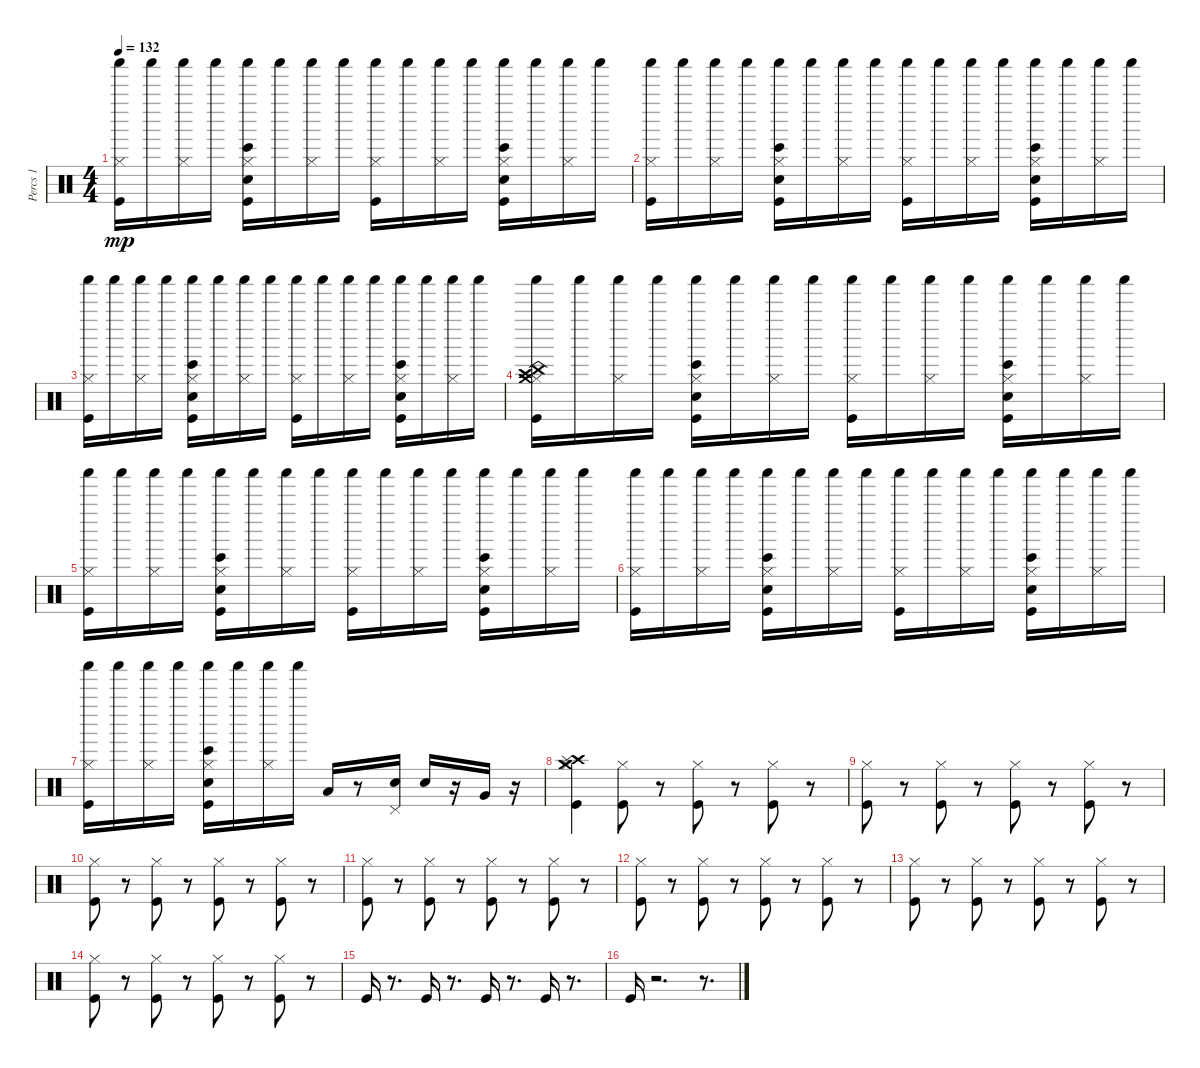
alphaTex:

\track ("Percs 1" "Percs 1") {instrument percussion}
\staff {score}
\articulation defaults
\ts (4 4)
\tempo 132
\clef neutral
\ks c
("Shaker (hit)" "Kick (hit)" "Hi-Hat (closed)").16{dy mp} "Shaker (hit)".16 ("Shaker (hit)" "Hi-Hat (closed)").16 "Shaker (hit)".16 ("Shaker (hit)" "Hi-Hat (closed)" "Electric Snare (hit)" "Kick (hit)" "Bongo High (hit)").16 "Shaker (hit)".16 ("Hi-Hat (closed)" "Shaker (hit)").16 "Shaker (hit)".16 ("Hi-Hat (closed)" "Shaker (hit)" "Kick (hit)").16 "Shaker (hit)".16 ("Hi-Hat (closed)" "Shaker (hit)").16 "Shaker (hit)".16 ("Shaker (hit)" "Bongo High (hit)" "Kick (hit)" "Electric Snare (hit)" "Hi-Hat (closed)").16 "Shaker (hit)".16 ("Shaker (hit)" "Hi-Hat (closed)").16 "Shaker (hit)".16 |
("Hi-Hat (closed)" "Kick (hit)" "Shaker (hit)").16 "Shaker (hit)".16 ("Hi-Hat (closed)" "Shaker (hit)").16 "Shaker (hit)".16 ("Hi-Hat (closed)" "Kick (hit)" "Electric Snare (hit)" "Bongo High (hit)" "Shaker (hit)").16 "Shaker (hit)".16 ("Shaker (hit)" "Hi-Hat (closed)").16 "Shaker (hit)".16 ("Hi-Hat (closed)" "Kick (hit)" "Shaker (hit)").16 "Shaker (hit)".16 ("Hi-Hat (closed)" "Shaker (hit)").16 "Shaker (hit)".16 ("Hi-Hat (closed)" "Electric Snare (hit)" "Shaker (hit)" "Bongo High (hit)" "Kick (hit)").16 "Shaker (hit)".16 ("Hi-Hat (closed)" "Shaker (hit)").16 "Shaker (hit)".16 |
("Shaker (hit)" "Kick (hit)" "Hi-Hat (closed)").16 "Shaker (hit)".16 ("Shaker (hit)" "Hi-Hat (closed)").16 "Shaker (hit)".16 ("Shaker (hit)" "Hi-Hat (closed)" "Electric Snare (hit)" "Kick (hit)" "Bongo High (hit)").16 "Shaker (hit)".16 ("Hi-Hat (closed)" "Shaker (hit)").16 "Shaker (hit)".16 ("Hi-Hat (closed)" "Shaker (hit)" "Kick (hit)").16 "Shaker (hit)".16 ("Hi-Hat (closed)" "Shaker (hit)").16 "Shaker (hit)".16 ("Shaker (hit)" "Bongo High (hit)" "Kick (hit)" "Electric Snare (hit)" "Hi-Hat (closed)").16 "Shaker (hit)".16 ("Shaker (hit)" "Hi-Hat (closed)").16 "Shaker (hit)".16 |
("Shaker (hit)" "Kick (hit)" "Hi-Hat (closed)" "Crash high (hit)" "China (hit)" "Crash medium (hit)").16 "Shaker (hit)".16 ("Hi-Hat (closed)" "Shaker (hit)").16 "Shaker (hit)".16 ("Hi-Hat (closed)" "Kick (hit)" "Electric Snare (hit)" "Bongo High (hit)" "Shaker (hit)").16 "Shaker (hit)".16 ("Shaker (hit)" "Hi-Hat (closed)").16 "Shaker (hit)".16 ("Hi-Hat (closed)" "Kick (hit)" "Shaker (hit)").16 "Shaker (hit)".16 ("Hi-Hat (closed)" "Shaker (hit)").16 "Shaker (hit)".16 ("Hi-Hat (closed)" "Electric Snare (hit)" "Shaker (hit)" "Bongo High (hit)" "Kick (hit)").16 "Shaker (hit)".16 ("Hi-Hat (closed)" "Shaker (hit)").16 "Shaker (hit)".16 |
("Shaker (hit)" "Kick (hit)" "Hi-Hat (closed)").16 "Shaker (hit)".16 ("Shaker (hit)" "Hi-Hat (closed)").16 "Shaker (hit)".16 ("Shaker (hit)" "Hi-Hat (closed)" "Electric Snare (hit)" "Kick (hit)" "Bongo High (hit)").16 "Shaker (hit)".16 ("Hi-Hat (closed)" "Shaker (hit)").16 "Shaker (hit)".16 ("Hi-Hat (closed)" "Shaker (hit)" "Kick (hit)").16 "Shaker (hit)".16 ("Hi-Hat (closed)" "Shaker (hit)").16 "Shaker (hit)".16 ("Shaker (hit)" "Bongo High (hit)" "Kick (hit)" "Electric Snare (hit)" "Hi-Hat (closed)").16 "Shaker (hit)".16 ("Shaker (hit)" "Hi-Hat (closed)").16 "Shaker (hit)".16 |
("Hi-Hat (closed)" "Kick (hit)" "Shaker (hit)").16 "Shaker (hit)".16 ("Hi-Hat (closed)" "Shaker (hit)").16 "Shaker (hit)".16 ("Hi-Hat (closed)" "Kick (hit)" "Electric Snare (hit)" "Bongo High (hit)" "Shaker (hit)").16 "Shaker (hit)".16 ("Shaker (hit)" "Hi-Hat (closed)").16 "Shaker (hit)".16 ("Hi-Hat (closed)" "Kick (hit)" "Shaker (hit)").16 "Shaker (hit)".16 ("Hi-Hat (closed)" "Shaker (hit)").16 "Shaker (hit)".16 ("Hi-Hat (closed)" "Electric Snare (hit)" "Shaker (hit)" "Bongo High (hit)" "Kick (hit)").16 "Shaker (hit)".16 ("Hi-Hat (closed)" "Shaker (hit)").16 "Shaker (hit)".16 |
("Shaker (hit)" "Hi-Hat (closed)" "Kick (hit)").16 "Shaker (hit)".16 ("Shaker (hit)" "Hi-Hat (closed)").16 "Shaker (hit)".16 ("Shaker (hit)" "Bongo High (hit)" "Kick (hit)" "Electric Snare (hit)" "Hi-Hat (closed)").16 "Shaker (hit)".16 ("Hi-Hat (closed)" "Shaker (hit)").16 "Shaker (hit)".16 "Low Floor Tom (hit)".16 r.8 ("Snare (hit) 2" "Pedal Hi-Hat (hit)").16 "Snare (hit) 2".16 r.16 "Very Low Tom (hit)".16 r.16 |
("Kick (hit)" "Hi-Hat (closed)" "Crash high (hit)" "Crash medium (hit)" "Splash (hit)").4 ("Kick (hit)" "Hi-Hat (closed)").8 r.8 ("Kick (hit)" "Hi-Hat (closed)").8 r.8 ("Kick (hit)" "Hi-Hat (closed)").8 r.8 |
("Kick (hit)" "Hi-Hat (closed)").8 r.8 ("Kick (hit)" "Hi-Hat (closed)").8 r.8 ("Kick (hit)" "Hi-Hat (closed)").8 r.8 ("Kick (hit)" "Hi-Hat (closed)").8 r.8 |
("Kick (hit)" "Hi-Hat (closed)").8 r.8 ("Kick (hit)" "Hi-Hat (closed)").8 r.8 ("Kick (hit)" "Hi-Hat (closed)").8 r.8 ("Kick (hit)" "Hi-Hat (closed)").8 r.8 |
("Kick (hit)" "Hi-Hat (closed)").8 r.8 ("Kick (hit)" "Hi-Hat (closed)").8 r.8 ("Kick (hit)" "Hi-Hat (closed)").8 r.8 ("Kick (hit)" "Hi-Hat (closed)").8 r.8 |
("Kick (hit)" "Hi-Hat (closed)").8 r.8 ("Kick (hit)" "Hi-Hat (closed)").8 r.8 ("Kick (hit)" "Hi-Hat (closed)").8 r.8 ("Kick (hit)" "Hi-Hat (closed)").8 r.8 |
("Kick (hit)" "Hi-Hat (closed)").8 r.8 ("Kick (hit)" "Hi-Hat (closed)").8 r.8 ("Kick (hit)" "Hi-Hat (closed)").8 r.8 ("Kick (hit)" "Hi-Hat (closed)").8 r.8 |
("Kick (hit)" "Hi-Hat (closed)").8 r.8 ("Kick (hit)" "Hi-Hat (closed)").8 r.8 ("Kick (hit)" "Hi-Hat (closed)").8 r.8 ("Kick (hit)" "Hi-Hat (closed)").8 r.8 |
"Kick (hit)".16 r.8{d} "Kick (hit)".16 r.8{d} "Kick (hit)".16 r.8{d} "Kick (hit)".16 r.8{d} |
"Kick (hit)".16 r.2{d} r.8{d}
